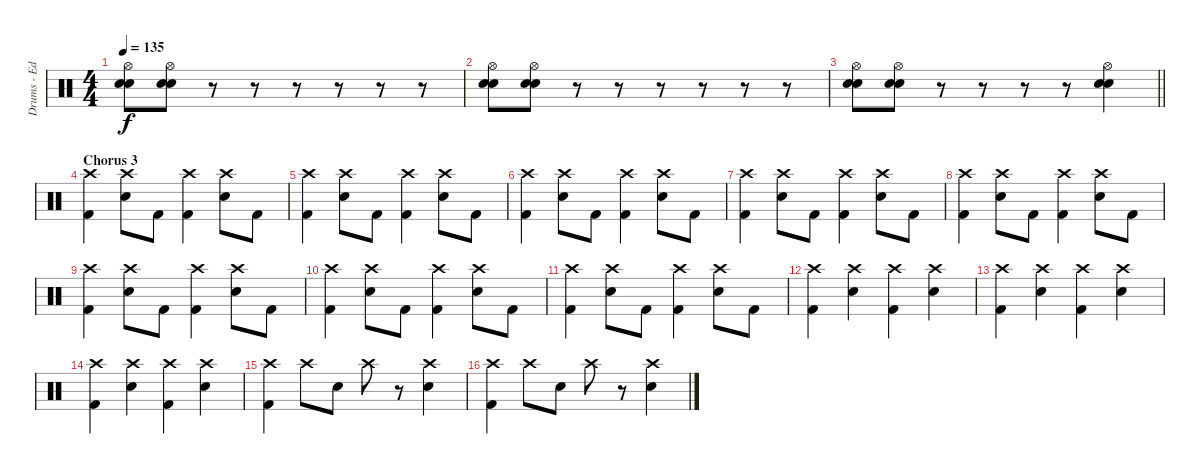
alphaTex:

\track ("Drums - Ed Edhus" "Drums - Ed") {instrument percussion bank 127}
\staff {score}
\articulation defaults
\ts (4 4)
\tempo 135
\clef neutral
\ks c
("Hi-Hat (open)" "Snare (hit) 2" "Snare (hit) 2").8{dy f} ("Hi-Hat (open)" "Snare (hit) 2" "Snare (hit) 2").8 r.8 r.8 r.8 r.8 r.8 r.8 |
("Hi-Hat (open)" "Snare (hit) 2" "Snare (hit) 2").8 ("Hi-Hat (open)" "Snare (hit) 2" "Snare (hit) 2").8 r.8 r.8 r.8 r.8 r.8 r.8 |
\barLineRight lightlight
("Hi-Hat (open)" "Snare (hit) 2" "Snare (hit) 2").8 ("Hi-Hat (open)" "Snare (hit) 2" "Snare (hit) 2").8 r.8 r.8 r.8 r.8 ("Hi-Hat (open)" "Snare (hit) 2" "Snare (hit) 2").4 |
\section ("" "Chorus 3")
("Crash high (hit)" "Kick (hit) 2").4 ("Crash high (hit)" "Snare (hit) 2").8 "Kick (hit) 2".8 ("Crash high (hit)" "Kick (hit) 2").4 ("Crash high (hit)" "Snare (hit) 2").8 "Kick (hit) 2".8 |
("Crash high (hit)" "Kick (hit) 2").4 ("Crash high (hit)" "Snare (hit) 2").8 "Kick (hit) 2".8 ("Crash high (hit)" "Kick (hit) 2").4 ("Crash high (hit)" "Snare (hit) 2").8 "Kick (hit) 2".8 |
("Crash high (hit)" "Kick (hit) 2").4 ("Crash high (hit)" "Snare (hit) 2").8 "Kick (hit) 2".8 ("Crash high (hit)" "Kick (hit) 2").4 ("Crash high (hit)" "Snare (hit) 2").8 "Kick (hit) 2".8 |
("Crash high (hit)" "Kick (hit) 2").4 ("Crash high (hit)" "Snare (hit) 2").8 "Kick (hit) 2".8 ("Crash high (hit)" "Kick (hit) 2").4 ("Crash high (hit)" "Snare (hit) 2").8 "Kick (hit) 2".8 |
("Crash high (hit)" "Kick (hit) 2").4 ("Crash high (hit)" "Snare (hit) 2").8 "Kick (hit) 2".8 ("Crash high (hit)" "Kick (hit) 2").4 ("Crash high (hit)" "Snare (hit) 2").8 "Kick (hit) 2".8 |
("Crash high (hit)" "Kick (hit) 2").4 ("Crash high (hit)" "Snare (hit) 2").8 "Kick (hit) 2".8 ("Crash high (hit)" "Kick (hit) 2").4 ("Crash high (hit)" "Snare (hit) 2").8 "Kick (hit) 2".8 |
("Crash high (hit)" "Kick (hit) 2").4 ("Crash high (hit)" "Snare (hit) 2").8 "Kick (hit) 2".8 ("Crash high (hit)" "Kick (hit) 2").4 ("Crash high (hit)" "Snare (hit) 2").8 "Kick (hit) 2".8 |
("Crash high (hit)" "Kick (hit) 2").4 ("Crash high (hit)" "Snare (hit) 2").8 "Kick (hit) 2".8 ("Crash high (hit)" "Kick (hit) 2").4 ("Crash high (hit)" "Snare (hit) 2").8 "Kick (hit) 2".8 |
("Crash high (hit)" "Kick (hit) 2").4 ("Crash high (hit)" "Snare (hit) 2").4 ("Crash high (hit)" "Kick (hit) 2").4 ("Crash high (hit)" "Snare (hit) 2").4 |
("Crash high (hit)" "Kick (hit) 2").4 ("Crash high (hit)" "Snare (hit) 2").4 ("Crash high (hit)" "Kick (hit) 2").4 ("Crash high (hit)" "Snare (hit) 2").4 |
("Crash high (hit)" "Kick (hit) 2").4 ("Crash high (hit)" "Snare (hit) 2").4 ("Crash high (hit)" "Kick (hit) 2").4 ("Crash high (hit)" "Snare (hit) 2").4 |
("Crash high (hit)" "Kick (hit) 2").4 "Crash high (hit)".8 "Snare (hit) 2".8 "Crash high (hit)".8 r.8 ("Crash high (hit)" "Snare (hit) 2").4 |
("Crash high (hit)" "Kick (hit) 2").4 "Crash high (hit)".8 "Snare (hit) 2".8 "Crash high (hit)".8 r.8 ("Crash high (hit)" "Snare (hit) 2").4
